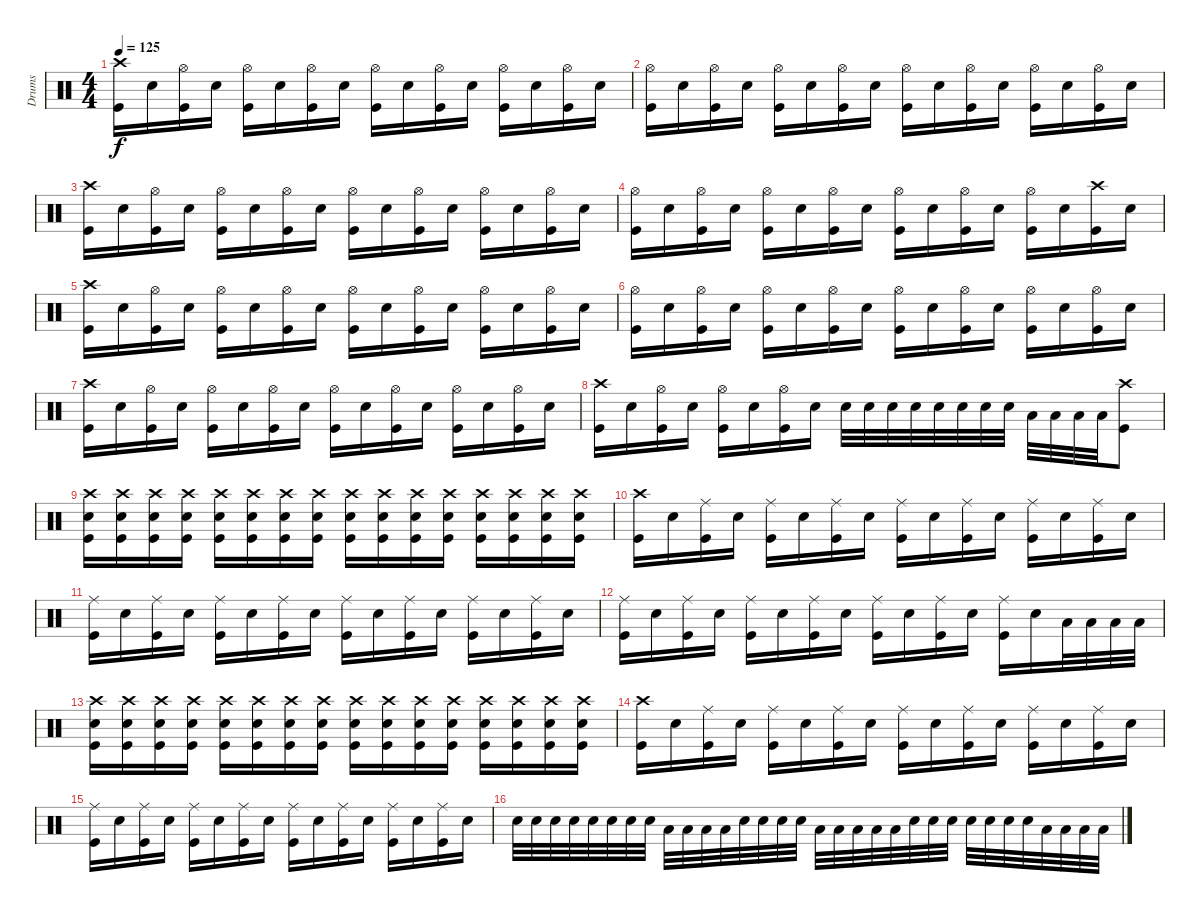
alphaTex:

\track ("Drums" "Drums") {instrument percussion}
\staff {score}
\articulation defaults
\ts (4 4)
\tempo 125
\clef neutral
\ks c
("Crash high (hit)" "Kick (hit)").16{dy f} "Electric Snare (hit)".16 ("Hi-Hat (open)" "Kick (hit)").16 "Electric Snare (hit)".16 ("Hi-Hat (open)" "Kick (hit)").16 "Electric Snare (hit)".16 ("Hi-Hat (open)" "Kick (hit)").16 "Electric Snare (hit)".16 ("Hi-Hat (open)" "Kick (hit)").16 "Electric Snare (hit)".16 ("Hi-Hat (open)" "Kick (hit)").16 "Electric Snare (hit)".16 ("Hi-Hat (open)" "Kick (hit)").16 "Electric Snare (hit)".16 ("Hi-Hat (open)" "Kick (hit)").16 "Electric Snare (hit)".16 |
("Hi-Hat (open)" "Kick (hit)").16 "Electric Snare (hit)".16 ("Hi-Hat (open)" "Kick (hit)").16 "Electric Snare (hit)".16 ("Hi-Hat (open)" "Kick (hit)").16 "Electric Snare (hit)".16 ("Hi-Hat (open)" "Kick (hit)").16 "Electric Snare (hit)".16 ("Hi-Hat (open)" "Kick (hit)").16 "Electric Snare (hit)".16 ("Hi-Hat (open)" "Kick (hit)").16 "Electric Snare (hit)".16 ("Hi-Hat (open)" "Kick (hit)").16 "Electric Snare (hit)".16 ("Hi-Hat (open)" "Kick (hit)").16 "Electric Snare (hit)".16 |
("Crash high (hit)" "Kick (hit)").16 "Electric Snare (hit)".16 ("Hi-Hat (open)" "Kick (hit)").16 "Electric Snare (hit)".16 ("Hi-Hat (open)" "Kick (hit)").16 "Electric Snare (hit)".16 ("Hi-Hat (open)" "Kick (hit)").16 "Electric Snare (hit)".16 ("Hi-Hat (open)" "Kick (hit)").16 "Electric Snare (hit)".16 ("Hi-Hat (open)" "Kick (hit)").16 "Electric Snare (hit)".16 ("Hi-Hat (open)" "Kick (hit)").16 "Electric Snare (hit)".16 ("Hi-Hat (open)" "Kick (hit)").16 "Electric Snare (hit)".16 |
("Hi-Hat (open)" "Kick (hit)").16 "Electric Snare (hit)".16 ("Hi-Hat (open)" "Kick (hit)").16 "Electric Snare (hit)".16 ("Hi-Hat (open)" "Kick (hit)").16 "Electric Snare (hit)".16 ("Hi-Hat (open)" "Kick (hit)").16 "Electric Snare (hit)".16 ("Hi-Hat (open)" "Kick (hit)").16 "Electric Snare (hit)".16 ("Hi-Hat (open)" "Kick (hit)").16 "Electric Snare (hit)".16 ("Hi-Hat (open)" "Kick (hit)").16 "Electric Snare (hit)".16 ("Crash high (hit)" "Kick (hit)").16 "Electric Snare (hit)".16 |
("Crash high (hit)" "Kick (hit)").16 "Electric Snare (hit)".16 ("Hi-Hat (open)" "Kick (hit)").16 "Electric Snare (hit)".16 ("Hi-Hat (open)" "Kick (hit)").16 "Electric Snare (hit)".16 ("Hi-Hat (open)" "Kick (hit)").16 "Electric Snare (hit)".16 ("Hi-Hat (open)" "Kick (hit)").16 "Electric Snare (hit)".16 ("Hi-Hat (open)" "Kick (hit)").16 "Electric Snare (hit)".16 ("Hi-Hat (open)" "Kick (hit)").16 "Electric Snare (hit)".16 ("Hi-Hat (open)" "Kick (hit)").16 "Electric Snare (hit)".16 |
("Hi-Hat (open)" "Kick (hit)").16 "Electric Snare (hit)".16 ("Hi-Hat (open)" "Kick (hit)").16 "Electric Snare (hit)".16 ("Hi-Hat (open)" "Kick (hit)").16 "Electric Snare (hit)".16 ("Hi-Hat (open)" "Kick (hit)").16 "Electric Snare (hit)".16 ("Hi-Hat (open)" "Kick (hit)").16 "Electric Snare (hit)".16 ("Hi-Hat (open)" "Kick (hit)").16 "Electric Snare (hit)".16 ("Hi-Hat (open)" "Kick (hit)").16 "Electric Snare (hit)".16 ("Hi-Hat (open)" "Kick (hit)").16 "Electric Snare (hit)".16 |
("Crash high (hit)" "Kick (hit)").16 "Electric Snare (hit)".16 ("Hi-Hat (open)" "Kick (hit)").16 "Electric Snare (hit)".16 ("Hi-Hat (open)" "Kick (hit)").16 "Electric Snare (hit)".16 ("Hi-Hat (open)" "Kick (hit)").16 "Electric Snare (hit)".16 ("Hi-Hat (open)" "Kick (hit)").16 "Electric Snare (hit)".16 ("Hi-Hat (open)" "Kick (hit)").16 "Electric Snare (hit)".16 ("Hi-Hat (open)" "Kick (hit)").16 "Electric Snare (hit)".16 ("Hi-Hat (open)" "Kick (hit)").16 "Electric Snare (hit)".16 |
("Crash high (hit)" "Kick (hit)").16 "Electric Snare (hit)".16 ("Hi-Hat (open)" "Kick (hit)").16 "Electric Snare (hit)".16 ("Hi-Hat (open)" "Kick (hit)").16 "Electric Snare (hit)".16 ("Hi-Hat (open)" "Kick (hit)").16 "Electric Snare (hit)".16 "Electric Snare (hit)".32 "Electric Snare (hit)".32 "Electric Snare (hit)".32 "Electric Snare (hit)".32 "Electric Snare (hit)".32 "Electric Snare (hit)".32 "Electric Snare (hit)".32 "Electric Snare (hit)".32 "Low Tom (hit)".32 "Low Tom (hit)".32 "Low Tom (hit)".32 "Low Tom (hit)".32 ("Crash high (hit)" "Kick (hit)").8 |
("Crash high (hit)" "Electric Snare (hit)" "Kick (hit)").16 ("Crash high (hit)" "Electric Snare (hit)" "Kick (hit)").16 ("Crash high (hit)" "Electric Snare (hit)" "Kick (hit)").16 ("Crash high (hit)" "Electric Snare (hit)" "Kick (hit)").16 ("Crash high (hit)" "Electric Snare (hit)" "Kick (hit)").16 ("Crash high (hit)" "Electric Snare (hit)" "Kick (hit)").16 ("Crash high (hit)" "Electric Snare (hit)" "Kick (hit)").16 ("Crash high (hit)" "Electric Snare (hit)" "Kick (hit)").16 ("Crash high (hit)" "Electric Snare (hit)" "Kick (hit)").16 ("Crash high (hit)" "Electric Snare (hit)" "Kick (hit)").16 ("Crash high (hit)" "Electric Snare (hit)" "Kick (hit)").16 ("Crash high (hit)" "Electric Snare (hit)" "Kick (hit)").16 ("Crash high (hit)" "Electric Snare (hit)" "Kick (hit)").16 ("Crash high (hit)" "Electric Snare (hit)" "Kick (hit)").16 ("Crash high (hit)" "Electric Snare (hit)" "Kick (hit)").16 ("Crash high (hit)" "Electric Snare (hit)" "Kick (hit)").16 |
("Crash high (hit)" "Kick (hit)").16 "Electric Snare (hit)".16 ("Ride (middle)" "Kick (hit)").16 "Electric Snare (hit)".16 ("Ride (middle)" "Kick (hit)").16 "Electric Snare (hit)".16 ("Ride (middle)" "Kick (hit)").16 "Electric Snare (hit)".16 ("Ride (middle)" "Kick (hit)").16 "Electric Snare (hit)".16 ("Ride (middle)" "Kick (hit)").16 "Electric Snare (hit)".16 ("Ride (middle)" "Kick (hit)").16 "Electric Snare (hit)".16 ("Ride (middle)" "Kick (hit)").16 "Electric Snare (hit)".16 |
("Ride (middle)" "Kick (hit)").16 "Electric Snare (hit)".16 ("Ride (middle)" "Kick (hit)").16 "Electric Snare (hit)".16 ("Ride (middle)" "Kick (hit)").16 "Electric Snare (hit)".16 ("Ride (middle)" "Kick (hit)").16 "Electric Snare (hit)".16 ("Ride (middle)" "Kick (hit)").16 "Electric Snare (hit)".16 ("Ride (middle)" "Kick (hit)").16 "Electric Snare (hit)".16 ("Ride (middle)" "Kick (hit)").16 "Electric Snare (hit)".16 ("Ride (middle)" "Kick (hit)").16 "Electric Snare (hit)".16 |
("Ride (middle)" "Kick (hit)").16 "Electric Snare (hit)".16 ("Ride (middle)" "Kick (hit)").16 "Electric Snare (hit)".16 ("Ride (middle)" "Kick (hit)").16 "Electric Snare (hit)".16 ("Ride (middle)" "Kick (hit)").16 "Electric Snare (hit)".16 ("Ride (middle)" "Kick (hit)").16 "Electric Snare (hit)".16 ("Ride (middle)" "Kick (hit)").16 "Electric Snare (hit)".16 ("Ride (middle)" "Kick (hit)").16 "Electric Snare (hit)".16 "Low Tom (hit)".32 "Low Tom (hit)".32 "Low Tom (hit)".32 "Low Tom (hit)".32 |
("Crash high (hit)" "Electric Snare (hit)" "Kick (hit)").16 ("Crash high (hit)" "Electric Snare (hit)" "Kick (hit)").16 ("Crash high (hit)" "Electric Snare (hit)" "Kick (hit)").16 ("Crash high (hit)" "Electric Snare (hit)" "Kick (hit)").16 ("Crash high (hit)" "Electric Snare (hit)" "Kick (hit)").16 ("Crash high (hit)" "Electric Snare (hit)" "Kick (hit)").16 ("Crash high (hit)" "Electric Snare (hit)" "Kick (hit)").16 ("Crash high (hit)" "Electric Snare (hit)" "Kick (hit)").16 ("Crash high (hit)" "Electric Snare (hit)" "Kick (hit)").16 ("Crash high (hit)" "Electric Snare (hit)" "Kick (hit)").16 ("Crash high (hit)" "Electric Snare (hit)" "Kick (hit)").16 ("Crash high (hit)" "Electric Snare (hit)" "Kick (hit)").16 ("Crash high (hit)" "Electric Snare (hit)" "Kick (hit)").16 ("Crash high (hit)" "Electric Snare (hit)" "Kick (hit)").16 ("Crash high (hit)" "Electric Snare (hit)" "Kick (hit)").16 ("Crash high (hit)" "Electric Snare (hit)" "Kick (hit)").16 |
("Crash high (hit)" "Kick (hit)").16 "Electric Snare (hit)".16 ("Ride (middle)" "Kick (hit)").16 "Electric Snare (hit)".16 ("Ride (middle)" "Kick (hit)").16 "Electric Snare (hit)".16 ("Ride (middle)" "Kick (hit)").16 "Electric Snare (hit)".16 ("Ride (middle)" "Kick (hit)").16 "Electric Snare (hit)".16 ("Ride (middle)" "Kick (hit)").16 "Electric Snare (hit)".16 ("Ride (middle)" "Kick (hit)").16 "Electric Snare (hit)".16 ("Ride (middle)" "Kick (hit)").16 "Electric Snare (hit)".16 |
("Ride (middle)" "Kick (hit)").16 "Electric Snare (hit)".16 ("Ride (middle)" "Kick (hit)").16 "Electric Snare (hit)".16 ("Ride (middle)" "Kick (hit)").16 "Electric Snare (hit)".16 ("Ride (middle)" "Kick (hit)").16 "Electric Snare (hit)".16 ("Ride (middle)" "Kick (hit)").16 "Electric Snare (hit)".16 ("Ride (middle)" "Kick (hit)").16 "Electric Snare (hit)".16 ("Ride (middle)" "Kick (hit)").16 "Electric Snare (hit)".16 ("Ride (middle)" "Kick (hit)").16 "Electric Snare (hit)".16 |
"Electric Snare (hit)".32 "Electric Snare (hit)".32 "Electric Snare (hit)".32 "Electric Snare (hit)".32 "Electric Snare (hit)".32 "Electric Snare (hit)".32 "Electric Snare (hit)".32 "Electric Snare (hit)".32 "Low Tom (hit)".32 "Low Tom (hit)".32 "Low Tom (hit)".32 "Low Tom (hit)".32 "Electric Snare (hit)".32 "Electric Snare (hit)".32 "Electric Snare (hit)".32 "Electric Snare (hit)".32 "Low Tom (hit)".32 "Low Tom (hit)".32 "Low Tom (hit)".32 "Low Tom (hit)".32 "Low Tom (hit)".32 "Electric Snare (hit)".32 "Electric Snare (hit)".32 "Electric Snare (hit)".32 "Electric Snare (hit)".32 "Electric Snare (hit)".32 "Electric Snare (hit)".32 "Electric Snare (hit)".32 "Low Tom (hit)".32 "Low Tom (hit)".32 "Low Tom (hit)".32 "Low Tom (hit)".32
